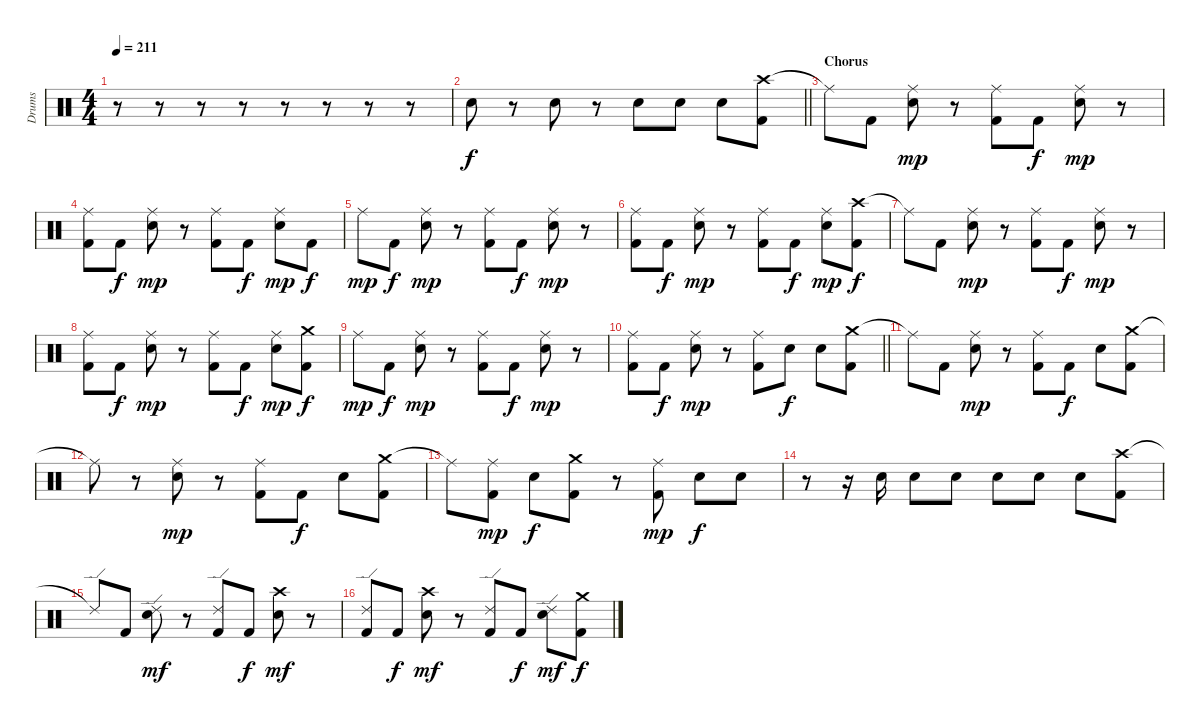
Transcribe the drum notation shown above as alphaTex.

\track ("Drums" "Drums") {instrument percussion}
\staff {score}
\articulation defaults
\ts (4 4)
\tempo 211
\clef neutral
\ks c
r.8{dy f} r.8 r.8 r.8 r.8 r.8 r.8 r.8 |
\barLineRight lightlight "Snare (hit) 2".8
r.8 "Snare (hit) 2".8 r.8 "Snare (hit) 2".8 "Snare (hit) 2".8 "Snare (hit) 2".8 ("Crash high (hit)" "Kick (hit) 2").8 |
\section ("" "Chorus")
"Ride (middle)"{t}.8 "Kick (hit) 2".8 ("Ride (middle)" "Snare (hit) 2").8{dy mp} r.8 ("Ride (middle)" "Kick (hit) 2").8 "Kick (hit) 2".8{dy f} ("Ride (middle)" "Snare (hit) 2").8{dy mp} r.8 |
("Ride (middle)" "Kick (hit) 2").8 "Kick (hit) 2".8{dy f} ("Ride (middle)" "Snare (hit) 2").8{dy mp} r.8 ("Ride (middle)" "Kick (hit) 2").8 "Kick (hit) 2".8{dy f} ("Ride (middle)" "Snare (hit) 2").8{dy mp} "Kick (hit) 2".8{dy f} |
"Ride (middle)".8{dy mp} "Kick (hit) 2".8{dy f} ("Ride (middle)" "Snare (hit) 2").8{dy mp} r.8 ("Ride (middle)" "Kick (hit) 2").8 "Kick (hit) 2".8{dy f} ("Ride (middle)" "Snare (hit) 2").8{dy mp} r.8 |
("Ride (middle)" "Kick (hit) 2").8 "Kick (hit) 2".8{dy f} ("Ride (middle)" "Snare (hit) 2").8{dy mp} r.8 ("Ride (middle)" "Kick (hit) 2").8 "Kick (hit) 2".8{dy f} ("Ride (middle)" "Snare (hit) 2").8{dy mp} ("Crash high (hit)" "Kick (hit) 2").8{dy f} |
"Ride (middle)"{t}.8 "Kick (hit) 2".8 ("Ride (middle)" "Snare (hit) 2").8{dy mp} r.8 ("Ride (middle)" "Kick (hit) 2").8 "Kick (hit) 2".8{dy f} ("Ride (middle)" "Snare (hit) 2").8{dy mp} r.8 |
("Ride (middle)" "Kick (hit) 2").8 "Kick (hit) 2".8{dy f} ("Ride (middle)" "Snare (hit) 2").8{dy mp} r.8 ("Ride (middle)" "Kick (hit) 2").8 "Kick (hit) 2".8{dy f} ("Ride (middle)" "Snare (hit) 2").8{dy mp} ("Crash medium (hit)" "Kick (hit) 2").8{dy f} |
"Ride (middle)".8{dy mp} "Kick (hit) 2".8{dy f} ("Ride (middle)" "Snare (hit) 2").8{dy mp} r.8 ("Ride (middle)" "Kick (hit) 2").8 "Kick (hit) 2".8{dy f} ("Ride (middle)" "Snare (hit) 2").8{dy mp} r.8 |
\barLineRight lightlight
("Ride (middle)" "Kick (hit) 2").8 "Kick (hit) 2".8{dy f} ("Ride (middle)" "Snare (hit) 2").8{dy mp} r.8 ("Ride (middle)" "Kick (hit) 2").8 "Snare (hit) 2".8{dy f} "Snare (hit) 2".8 ("Crash medium (hit)" "Kick (hit) 2").8 |
"Ride (middle)"{t}.8 "Kick (hit) 2".8 ("Ride (middle)" "Snare (hit) 2").8{dy mp} r.8 ("Ride (middle)" "Kick (hit) 2").8 "Kick (hit) 2".8{dy f} "Snare (hit) 2".8 ("Crash medium (hit)" "Kick (hit) 2").8 |
"Ride (middle)"{t}.8 r.8 ("Ride (middle)" "Snare (hit) 2").8{dy mp} r.8 ("Ride (middle)" "Kick (hit) 2").8 "Kick (hit) 2".8{dy f} "Snare (hit) 2".8 ("Crash medium (hit)" "Kick (hit) 2").8 |
"Ride (middle)"{t}.8 ("Ride (middle)" "Kick (hit) 2").8{dy mp} "Snare (hit) 2".8{dy f} ("Crash medium (hit)" "Kick (hit) 2").8 r.8 ("Ride (middle)" "Kick (hit) 2").8{dy mp} "Snare (hit) 2".8{dy f} "Snare (hit) 2".8 |
r.8 r.16 "Snare (hit) 2".16 "Snare (hit) 2".8 "Snare (hit) 2".8 "Snare (hit) 2".8 "Snare (hit) 2".8 "Snare (hit) 2".8 ("Crash high (hit)" "Kick (hit) 2").8 |
"Ride (edge) 2"{t}.8 "Kick (hit) 2".8 ("Ride (edge) 2" "Snare (hit) 2").8{dy mf} r.8 ("Ride (edge) 2" "Kick (hit) 2").8 "Kick (hit) 2".8{dy f} ("Crash high (hit)" "Snare (hit) 2").8{dy mf} r.8 |
("Ride (edge) 2" "Kick (hit) 2").8 "Kick (hit) 2".8{dy f} ("Crash high (hit)" "Snare (hit) 2").8{dy mf} r.8 ("Ride (edge) 2" "Kick (hit) 2").8 "Kick (hit) 2".8{dy f} ("Ride (edge) 2" "Snare (hit) 2").8{dy mf} ("Crash medium (hit)" "Kick (hit) 2").8{dy f}
